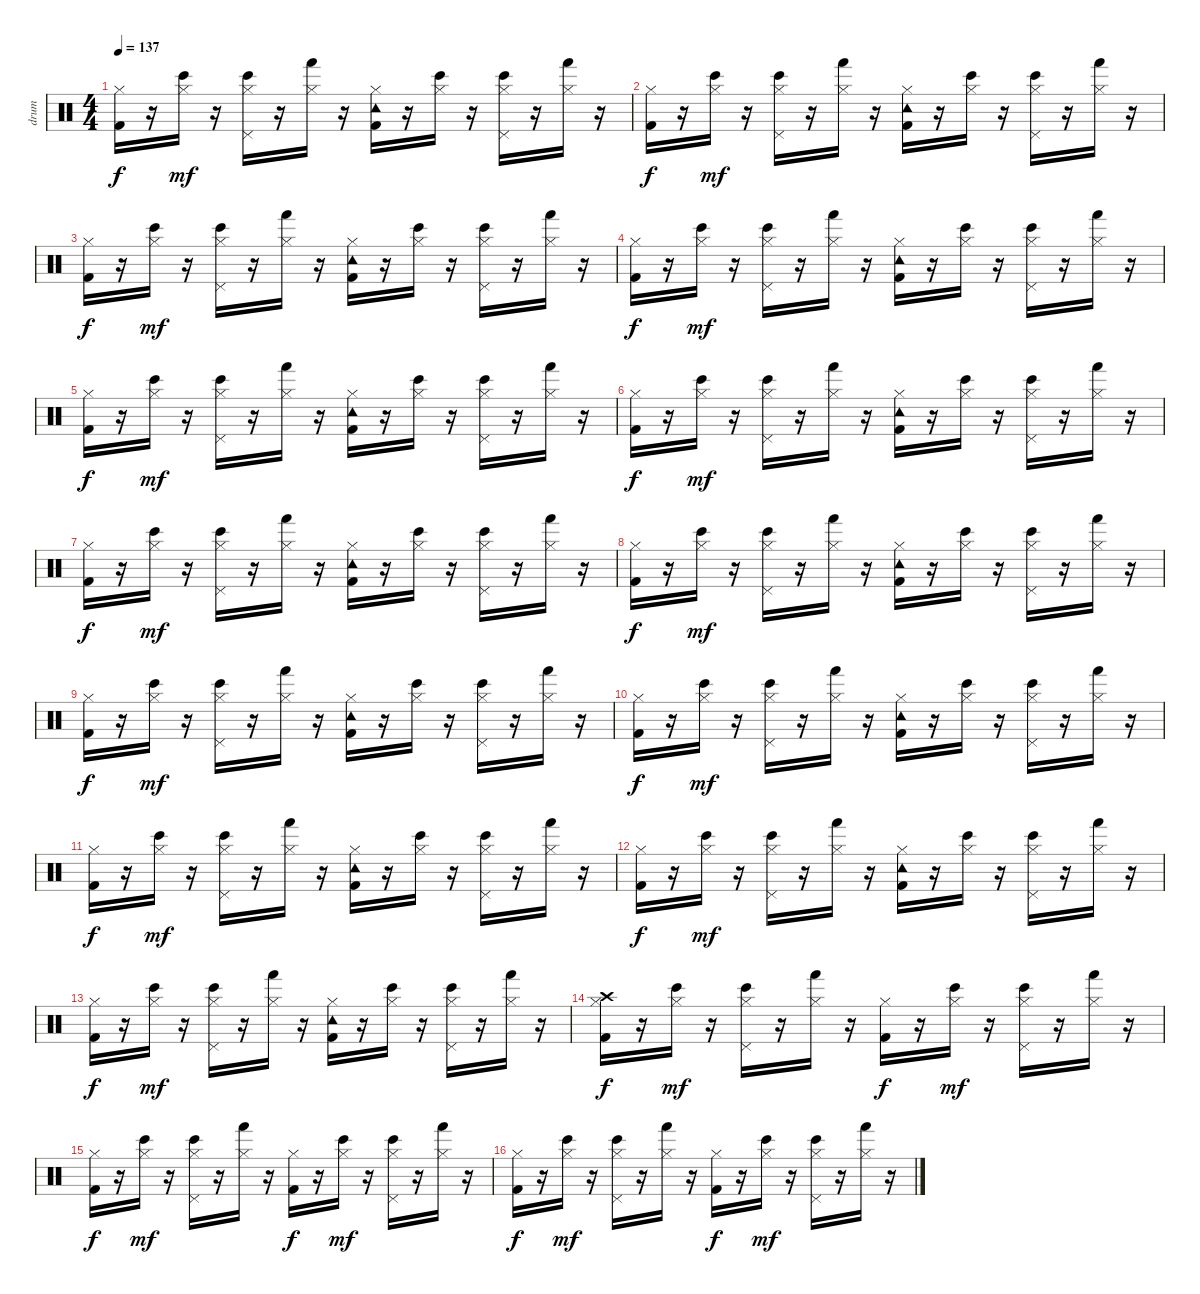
\track ("drum" "drum") {instrument percussion}
\staff {score}
\articulation defaults
\ts (4 4)
\tempo 137
\clef neutral
\ks c
("Kick (hit) 2" "Hi-Hat (closed)").16{dy f} r.16 ("Bongo High (hit)" "Hi-Hat (closed)").16{dy mf} r.16 ("Bongo High (hit)" "Hi-Hat (closed)" "Pedal Hi-Hat (hit)").16 r.16 ("Hand (hit)" "Hi-Hat (closed)").16 r.16 ("Kick (hit) 2" "Hi-Hat (closed)" "Tambourine (hit)").16 r.16 ("Hi-Hat (closed)" "Bongo High (hit)").16 r.16 ("Bongo High (hit)" "Hi-Hat (closed)" "Pedal Hi-Hat (hit)").16 r.16 ("Hand (hit)" "Hi-Hat (closed)").16 r.16 |
("Kick (hit) 2" "Hi-Hat (closed)").16{dy f} r.16 ("Hi-Hat (closed)" "Bongo High (hit)").16{dy mf} r.16 ("Bongo High (hit)" "Hi-Hat (closed)" "Pedal Hi-Hat (hit)").16 r.16 ("Hand (hit)" "Hi-Hat (closed)").16 r.16 ("Tambourine (hit)" "Kick (hit) 2" "Hi-Hat (closed)").16 r.16 ("Bongo High (hit)" "Hi-Hat (closed)").16 r.16 ("Bongo High (hit)" "Hi-Hat (closed)" "Pedal Hi-Hat (hit)").16 r.16 ("Hi-Hat (closed)" "Hand (hit)").16 r.16 |
("Hi-Hat (closed)" "Kick (hit) 2").16{dy f} r.16 ("Bongo High (hit)" "Hi-Hat (closed)").16{dy mf} r.16 ("Bongo High (hit)" "Hi-Hat (closed)" "Pedal Hi-Hat (hit)").16 r.16 ("Hand (hit)" "Hi-Hat (closed)").16 r.16 ("Kick (hit) 2" "Tambourine (hit)" "Hi-Hat (closed)").16 r.16 ("Hi-Hat (closed)" "Bongo High (hit)").16 r.16 ("Hi-Hat (closed)" "Bongo High (hit)" "Pedal Hi-Hat (hit)").16 r.16 ("Hand (hit)" "Hi-Hat (closed)").16 r.16 |
("Hi-Hat (closed)" "Kick (hit) 2").16{dy f} r.16 ("Hi-Hat (closed)" "Bongo High (hit)").16{dy mf} r.16 ("Hi-Hat (closed)" "Bongo High (hit)" "Pedal Hi-Hat (hit)").16 r.16 ("Hand (hit)" "Hi-Hat (closed)").16 r.16 ("Tambourine (hit)" "Kick (hit) 2" "Hi-Hat (closed)").16 r.16 ("Hi-Hat (closed)" "Bongo High (hit)").16 r.16 ("Hi-Hat (closed)" "Bongo High (hit)" "Pedal Hi-Hat (hit)").16 r.16 ("Hi-Hat (closed)" "Hand (hit)").16 r.16 |
("Kick (hit) 2" "Hi-Hat (closed)").16{dy f} r.16 ("Bongo High (hit)" "Hi-Hat (closed)").16{dy mf} r.16 ("Bongo High (hit)" "Hi-Hat (closed)" "Pedal Hi-Hat (hit)").16 r.16 ("Hi-Hat (closed)" "Hand (hit)").16 r.16 ("Hi-Hat (closed)" "Tambourine (hit)" "Kick (hit) 2").16 r.16 ("Hi-Hat (closed)" "Bongo High (hit)").16 r.16 ("Bongo High (hit)" "Hi-Hat (closed)" "Pedal Hi-Hat (hit)").16 r.16 ("Hand (hit)" "Hi-Hat (closed)").16 r.16 |
("Hi-Hat (closed)" "Kick (hit) 2").16{dy f} r.16 ("Hi-Hat (closed)" "Bongo High (hit)").16{dy mf} r.16 ("Bongo High (hit)" "Hi-Hat (closed)" "Pedal Hi-Hat (hit)").16 r.16 ("Hi-Hat (closed)" "Hand (hit)").16 r.16 ("Tambourine (hit)" "Kick (hit) 2" "Hi-Hat (closed)").16 r.16 ("Bongo High (hit)" "Hi-Hat (closed)").16 r.16 ("Bongo High (hit)" "Hi-Hat (closed)" "Pedal Hi-Hat (hit)").16 r.16 ("Hand (hit)" "Hi-Hat (closed)").16 r.16 |
("Hi-Hat (closed)" "Kick (hit) 2").16{dy f} r.16 ("Bongo High (hit)" "Hi-Hat (closed)").16{dy mf} r.16 ("Hi-Hat (closed)" "Bongo High (hit)" "Pedal Hi-Hat (hit)").16 r.16 ("Hand (hit)" "Hi-Hat (closed)").16 r.16 ("Hi-Hat (closed)" "Tambourine (hit)" "Kick (hit) 2").16 r.16 ("Hi-Hat (closed)" "Bongo High (hit)").16 r.16 ("Hi-Hat (closed)" "Bongo High (hit)" "Pedal Hi-Hat (hit)").16 r.16 ("Hi-Hat (closed)" "Hand (hit)").16 r.16 |
("Hi-Hat (closed)" "Kick (hit) 2").16{dy f} r.16 ("Hi-Hat (closed)" "Bongo High (hit)").16{dy mf} r.16 ("Bongo High (hit)" "Hi-Hat (closed)" "Pedal Hi-Hat (hit)").16 r.16 ("Hand (hit)" "Hi-Hat (closed)").16 r.16 ("Tambourine (hit)" "Hi-Hat (closed)" "Kick (hit) 2").16 r.16 ("Hi-Hat (closed)" "Bongo High (hit)").16 r.16 ("Hi-Hat (closed)" "Bongo High (hit)" "Pedal Hi-Hat (hit)").16 r.16 ("Hand (hit)" "Hi-Hat (closed)").16 r.16 |
("Kick (hit) 2" "Hi-Hat (closed)").16{dy f} r.16 ("Hi-Hat (closed)" "Bongo High (hit)").16{dy mf} r.16 ("Hi-Hat (closed)" "Bongo High (hit)" "Pedal Hi-Hat (hit)").16 r.16 ("Hand (hit)" "Hi-Hat (closed)").16 r.16 ("Kick (hit) 2" "Hi-Hat (closed)" "Tambourine (hit)").16 r.16 ("Hi-Hat (closed)" "Bongo High (hit)").16 r.16 ("Hi-Hat (closed)" "Bongo High (hit)" "Pedal Hi-Hat (hit)").16 r.16 ("Hi-Hat (closed)" "Hand (hit)").16 r.16 |
("Hi-Hat (closed)" "Kick (hit) 2").16{dy f} r.16 ("Hi-Hat (closed)" "Bongo High (hit)").16{dy mf} r.16 ("Hi-Hat (closed)" "Bongo High (hit)" "Pedal Hi-Hat (hit)").16 r.16 ("Hi-Hat (closed)" "Hand (hit)").16 r.16 ("Tambourine (hit)" "Hi-Hat (closed)" "Kick (hit) 2").16 r.16 ("Bongo High (hit)" "Hi-Hat (closed)").16 r.16 ("Hi-Hat (closed)" "Bongo High (hit)" "Pedal Hi-Hat (hit)").16 r.16 ("Hand (hit)" "Hi-Hat (closed)").16 r.16 |
("Hi-Hat (closed)" "Kick (hit) 2").16{dy f} r.16 ("Bongo High (hit)" "Hi-Hat (closed)").16{dy mf} r.16 ("Hi-Hat (closed)" "Bongo High (hit)" "Pedal Hi-Hat (hit)").16 r.16 ("Hand (hit)" "Hi-Hat (closed)").16 r.16 ("Hi-Hat (closed)" "Tambourine (hit)" "Kick (hit) 2").16 r.16 ("Bongo High (hit)" "Hi-Hat (closed)").16 r.16 ("Hi-Hat (closed)" "Bongo High (hit)" "Pedal Hi-Hat (hit)").16 r.16 ("Hi-Hat (closed)" "Hand (hit)").16 r.16 |
("Kick (hit) 2" "Hi-Hat (closed)").16{dy f} r.16 ("Bongo High (hit)" "Hi-Hat (closed)").16{dy mf} r.16 ("Bongo High (hit)" "Hi-Hat (closed)" "Pedal Hi-Hat (hit)").16 r.16 ("Hand (hit)" "Hi-Hat (closed)").16 r.16 ("Tambourine (hit)" "Hi-Hat (closed)" "Kick (hit) 2").16 r.16 ("Hi-Hat (closed)" "Bongo High (hit)").16 r.16 ("Bongo High (hit)" "Hi-Hat (closed)" "Pedal Hi-Hat (hit)").16 r.16 ("Hi-Hat (closed)" "Hand (hit)").16 r.16 |
("Hi-Hat (closed)" "Kick (hit) 2").16{dy f} r.16 ("Bongo High (hit)" "Hi-Hat (closed)").16{dy mf} r.16 ("Bongo High (hit)" "Hi-Hat (closed)" "Pedal Hi-Hat (hit)").16 r.16 ("Hi-Hat (closed)" "Hand (hit)").16 r.16 ("Kick (hit) 2" "Tambourine (hit)" "Hi-Hat (closed)").16 r.16 ("Bongo High (hit)" "Hi-Hat (closed)").16 r.16 ("Hi-Hat (closed)" "Bongo High (hit)" "Pedal Hi-Hat (hit)").16 r.16 ("Hi-Hat (closed)" "Hand (hit)").16 r.16 |
("Crash high (hit)" "Kick (hit) 2" "Hi-Hat (closed)").16{dy f} r.16 ("Bongo High (hit)" "Hi-Hat (closed)").16{dy mf} r.16 ("Bongo High (hit)" "Hi-Hat (closed)" "Pedal Hi-Hat (hit)").16 r.16 ("Hand (hit)" "Hi-Hat (closed)").16 r.16 ("Kick (hit) 2" "Hi-Hat (closed)").16{dy f} r.16 ("Hi-Hat (closed)" "Bongo High (hit)").16{dy mf} r.16 ("Hi-Hat (closed)" "Bongo High (hit)" "Pedal Hi-Hat (hit)").16 r.16 ("Hand (hit)" "Hi-Hat (closed)").16 r.16 |
("Kick (hit) 2" "Hi-Hat (closed)").16{dy f} r.16 ("Hi-Hat (closed)" "Bongo High (hit)").16{dy mf} r.16 ("Bongo High (hit)" "Hi-Hat (closed)" "Pedal Hi-Hat (hit)").16 r.16 ("Hand (hit)" "Hi-Hat (closed)").16 r.16 ("Kick (hit) 2" "Hi-Hat (closed)").16{dy f} r.16 ("Hi-Hat (closed)" "Bongo High (hit)").16{dy mf} r.16 ("Hi-Hat (closed)" "Bongo High (hit)" "Pedal Hi-Hat (hit)").16 r.16 ("Hi-Hat (closed)" "Hand (hit)").16 r.16 |
("Kick (hit) 2" "Hi-Hat (closed)").16{dy f} r.16 ("Bongo High (hit)" "Hi-Hat (closed)").16{dy mf} r.16 ("Hi-Hat (closed)" "Bongo High (hit)" "Pedal Hi-Hat (hit)").16 r.16 ("Hi-Hat (closed)" "Hand (hit)").16 r.16 ("Kick (hit) 2" "Hi-Hat (closed)").16{dy f} r.16 ("Hi-Hat (closed)" "Bongo High (hit)").16{dy mf} r.16 ("Bongo High (hit)" "Hi-Hat (closed)" "Pedal Hi-Hat (hit)").16 r.16 ("Hi-Hat (closed)" "Hand (hit)").16 r.16
